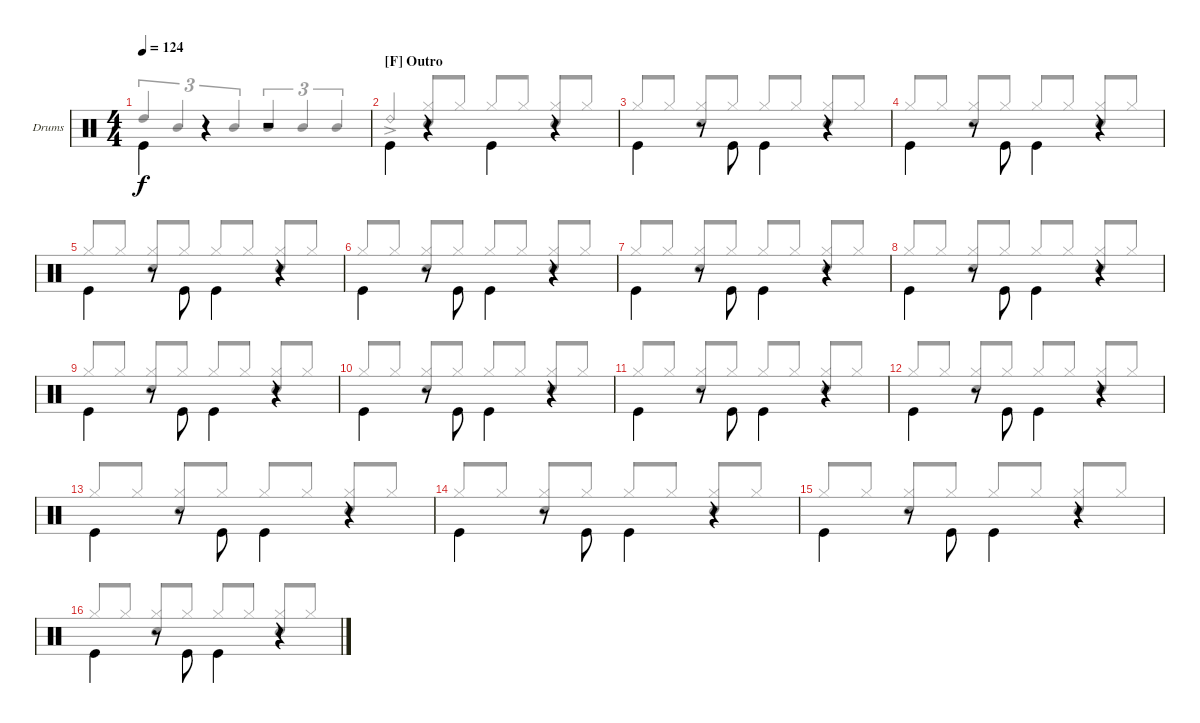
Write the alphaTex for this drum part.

\bracketExtendMode groupsimilarinstruments
\firstSystemTrackNameOrientation horizontal
\otherSystemsTrackNameOrientation horizontal
\track ("Drums" "Drums") {instrument percussion}
\staff {score}
\articulation defaults
\voice
\ts (4 4)
\tempo 124
\clef neutral
\scale
1.02648
\ks c "Kick (hit)".4{dy f beam invert}
r.4 r.2 |
\section ("F" "Outro")
\scale
0.973518 "Kick (hit)".4{beam invert} r.4 "Kick (hit)".4{beam invert} r.4 |
\scale
1.02648 "Kick (hit)".4{beam invert} r.8 "Kick (hit)".8{beam invert} "Kick (hit)".4{beam invert} r.4 |
\scale
0.973518 "Kick (hit)".4{beam invert} r.8 "Kick (hit)".8{beam invert} "Kick (hit)".4{beam invert} r.4 |
\scale
1.02648 "Kick (hit)".4{beam invert} r.8 "Kick (hit)".8{beam invert} "Kick (hit)".4{beam invert} r.4 |
\scale
0.973518 "Kick (hit)".4{beam invert} r.8 "Kick (hit)".8{beam invert} "Kick (hit)".4{beam invert} r.4 |
\scale
1.02648 "Kick (hit)".4{beam invert} r.8 "Kick (hit)".8{beam invert} "Kick (hit)".4{beam invert} r.4 |
\scale
0.973518 "Kick (hit)".4{beam invert} r.8 "Kick (hit)".8{beam invert} "Kick (hit)".4{beam invert} r.4 |
\scale
1.02648 "Kick (hit)".4{beam invert} r.8 "Kick (hit)".8{beam invert} "Kick (hit)".4{beam invert} r.4 |
\scale
0.973518 "Kick (hit)".4{beam invert} r.8 "Kick (hit)".8{beam invert} "Kick (hit)".4{beam invert} r.4 |
\scale
1.02648 "Kick (hit)".4{beam invert} r.8 "Kick (hit)".8{beam invert} "Kick (hit)".4{beam invert} r.4 |
\scale
0.973518 "Kick (hit)".4{beam invert} r.8 "Kick (hit)".8{beam invert} "Kick (hit)".4{beam invert} r.4 |
\scale
1.02648 "Kick (hit)".4{beam invert} r.8 "Kick (hit)".8{beam invert} "Kick (hit)".4{beam invert} r.4 |
\scale
0.973518 "Kick (hit)".4{beam invert} r.8 "Kick (hit)".8{beam invert} "Kick (hit)".4{beam invert} r.4 |
\scale
1.02648 "Kick (hit)".4{beam invert} r.8 "Kick (hit)".8{beam invert} "Kick (hit)".4{beam invert} r.4 |
\scale
0.973518 "Kick (hit)".4{beam invert} r.8 "Kick (hit)".8{beam invert} "Kick (hit)".4{beam invert} r.4
\voice
\clef neutral
\ottava regular
\simile none
\scale
1.02648
\ks c "High Tom (hit)".4{tu (3 2) dy f beam invert} "Mid Tom (hit)".4{tu (3 2) beam invert} "Mid Tom (hit)".4{tu (3 2) beam invert} "Mid Tom (hit)".4{tu (3 2) beam invert} "Mid Tom (hit)".4{tu (3 2) beam invert} "Mid Tom (hit)".4{tu (3 2) beam invert}
|
\scale
0.973518 "Ride (bell) 2"{ac}.4{beam invert} ("Hi-Hat (closed)" "Snare (hit) 2").8{beam invert} "Hi-Hat (closed)".8 "Hi-Hat (closed)".8{beam invert} "Hi-Hat (closed)".8 ("Hi-Hat (closed)" "Snare (hit) 2").8{beam invert} "Hi-Hat (closed)".8 |
\scale
1.02648 "Hi-Hat (closed)".8{beam invert} "Hi-Hat (closed)".8 ("Hi-Hat (closed)" "Snare (hit) 2").8{beam invert} "Hi-Hat (closed)".8 "Hi-Hat (closed)".8{beam invert} "Hi-Hat (closed)".8 ("Hi-Hat (closed)" "Snare (hit) 2").8{beam invert} "Hi-Hat (closed)".8 |
\scale
0.973518 "Hi-Hat (closed)".8{beam invert} "Hi-Hat (closed)".8 ("Hi-Hat (closed)" "Snare (hit) 2").8{beam invert} "Hi-Hat (closed)".8 "Hi-Hat (closed)".8{beam invert} "Hi-Hat (closed)".8 ("Hi-Hat (closed)" "Snare (hit) 2").8{beam invert} "Hi-Hat (closed)".8 |
\scale
1.02648 "Hi-Hat (closed)".8{beam invert} "Hi-Hat (closed)".8 ("Hi-Hat (closed)" "Snare (hit) 2").8{beam invert} "Hi-Hat (closed)".8 "Hi-Hat (closed)".8{beam invert} "Hi-Hat (closed)".8 ("Hi-Hat (closed)" "Snare (hit) 2").8{beam invert} "Hi-Hat (closed)".8 |
\scale
0.973518 "Hi-Hat (closed)".8{beam invert} "Hi-Hat (closed)".8 ("Hi-Hat (closed)" "Snare (hit) 2").8{beam invert} "Hi-Hat (closed)".8 "Hi-Hat (closed)".8{beam invert} "Hi-Hat (closed)".8 ("Hi-Hat (closed)" "Snare (hit) 2").8{beam invert} "Hi-Hat (closed)".8 |
\scale
1.02648 "Hi-Hat (closed)".8{beam invert} "Hi-Hat (closed)".8 ("Hi-Hat (closed)" "Snare (hit) 2").8{beam invert} "Hi-Hat (closed)".8 "Hi-Hat (closed)".8{beam invert} "Hi-Hat (closed)".8 ("Hi-Hat (closed)" "Snare (hit) 2").8{beam invert} "Hi-Hat (closed)".8 |
\scale
0.973518 "Hi-Hat (closed)".8{beam invert} "Hi-Hat (closed)".8 ("Hi-Hat (closed)" "Snare (hit) 2").8{beam invert} "Hi-Hat (closed)".8 "Hi-Hat (closed)".8{beam invert} "Hi-Hat (closed)".8 ("Hi-Hat (closed)" "Snare (hit) 2").8{beam invert} "Hi-Hat (closed)".8 |
\scale
1.02648 "Hi-Hat (closed)".8{beam invert} "Hi-Hat (closed)".8 ("Hi-Hat (closed)" "Snare (hit) 2").8{beam invert} "Hi-Hat (closed)".8 "Hi-Hat (closed)".8{beam invert} "Hi-Hat (closed)".8 ("Hi-Hat (closed)" "Snare (hit) 2").8{beam invert} "Hi-Hat (closed)".8 |
\scale
0.973518 "Hi-Hat (closed)".8{beam invert} "Hi-Hat (closed)".8 ("Hi-Hat (closed)" "Snare (hit) 2").8{beam invert} "Hi-Hat (closed)".8 "Hi-Hat (closed)".8{beam invert} "Hi-Hat (closed)".8 ("Hi-Hat (closed)" "Snare (hit) 2").8{beam invert} "Hi-Hat (closed)".8 |
\scale
1.02648 "Hi-Hat (closed)".8{beam invert} "Hi-Hat (closed)".8 ("Hi-Hat (closed)" "Snare (hit) 2").8{beam invert} "Hi-Hat (closed)".8 "Hi-Hat (closed)".8{beam invert} "Hi-Hat (closed)".8 ("Hi-Hat (closed)" "Snare (hit) 2").8{beam invert} "Hi-Hat (closed)".8 |
\scale
0.973518 "Hi-Hat (closed)".8{beam invert} "Hi-Hat (closed)".8 ("Hi-Hat (closed)" "Snare (hit) 2").8{beam invert} "Hi-Hat (closed)".8 "Hi-Hat (closed)".8{beam invert} "Hi-Hat (closed)".8 ("Hi-Hat (closed)" "Snare (hit) 2").8{beam invert} "Hi-Hat (closed)".8 |
\scale
1.02648 "Hi-Hat (closed)".8{beam invert} "Hi-Hat (closed)".8 ("Hi-Hat (closed)" "Snare (hit) 2").8{beam invert} "Hi-Hat (closed)".8 "Hi-Hat (closed)".8{beam invert} "Hi-Hat (closed)".8 ("Hi-Hat (closed)" "Snare (hit) 2").8{beam invert} "Hi-Hat (closed)".8 |
\scale
0.973518 "Hi-Hat (closed)".8{beam invert} "Hi-Hat (closed)".8 ("Hi-Hat (closed)" "Snare (hit) 2").8{beam invert} "Hi-Hat (closed)".8 "Hi-Hat (closed)".8{beam invert} "Hi-Hat (closed)".8 ("Hi-Hat (closed)" "Snare (hit) 2").8{beam invert} "Hi-Hat (closed)".8 |
\scale
1.02648 "Hi-Hat (closed)".8{beam invert} "Hi-Hat (closed)".8 ("Hi-Hat (closed)" "Snare (hit) 2").8{beam invert} "Hi-Hat (closed)".8 "Hi-Hat (closed)".8{beam invert} "Hi-Hat (closed)".8 ("Hi-Hat (closed)" "Snare (hit) 2").8{beam invert} "Hi-Hat (closed)".8 |
\scale
0.973518 "Hi-Hat (closed)".8{beam invert} "Hi-Hat (closed)".8 ("Hi-Hat (closed)" "Snare (hit) 2").8{beam invert} "Hi-Hat (closed)".8 "Hi-Hat (closed)".8{beam invert} "Hi-Hat (closed)".8 ("Hi-Hat (closed)" "Snare (hit) 2").8{beam invert} "Hi-Hat (closed)".8
